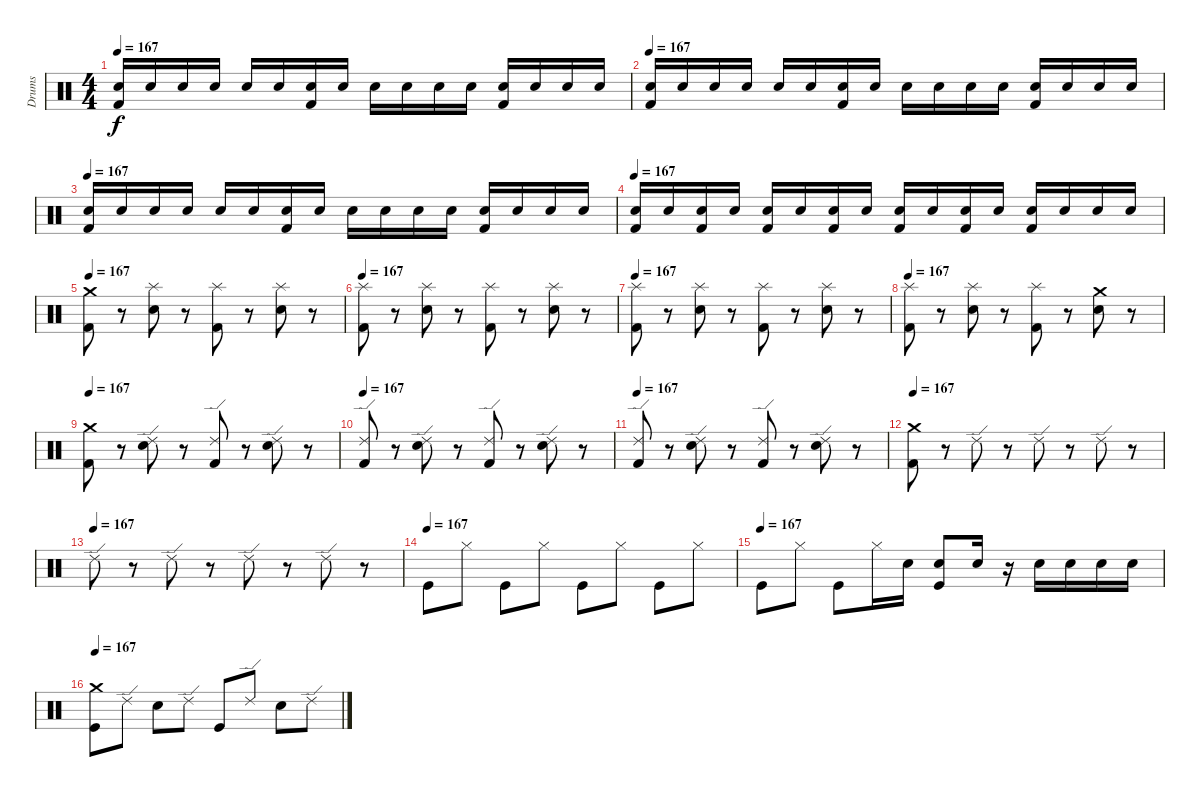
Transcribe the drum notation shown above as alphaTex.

\track ("Drums" "Drums") {instrument percussion}
\staff {score}
\articulation defaults
\ts (4 4)
\tempo 167
\clef neutral
\ks c
("Kick (hit) 2" "Electric Snare (hit)").16{dy f} "Electric Snare (hit)".16 "Electric Snare (hit)".16 "Electric Snare (hit)".16 "Electric Snare (hit)".16 "Electric Snare (hit)".16 ("Kick (hit) 2" "Electric Snare (hit)").16 "Electric Snare (hit)".16 "Electric Snare (hit)".16 "Electric Snare (hit)".16 "Electric Snare (hit)".16 "Electric Snare (hit)".16 ("Kick (hit) 2" "Electric Snare (hit)").16 "Electric Snare (hit)".16 "Electric Snare (hit)".16 "Electric Snare (hit)".16 |
\tempo 167
("Kick (hit) 2" "Electric Snare (hit)").16 "Electric Snare (hit)".16 "Electric Snare (hit)".16 "Electric Snare (hit)".16 "Electric Snare (hit)".16 "Electric Snare (hit)".16 ("Kick (hit) 2" "Electric Snare (hit)").16 "Electric Snare (hit)".16 "Electric Snare (hit)".16 "Electric Snare (hit)".16 "Electric Snare (hit)".16 "Electric Snare (hit)".16 ("Kick (hit) 2" "Electric Snare (hit)").16 "Electric Snare (hit)".16 "Electric Snare (hit)".16 "Electric Snare (hit)".16 |
\tempo 167
("Kick (hit) 2" "Electric Snare (hit)").16 "Electric Snare (hit)".16 "Electric Snare (hit)".16 "Electric Snare (hit)".16 "Electric Snare (hit)".16 "Electric Snare (hit)".16 ("Kick (hit) 2" "Electric Snare (hit)").16 "Electric Snare (hit)".16 "Electric Snare (hit)".16 "Electric Snare (hit)".16 "Electric Snare (hit)".16 "Electric Snare (hit)".16 ("Kick (hit) 2" "Electric Snare (hit)").16 "Electric Snare (hit)".16 "Electric Snare (hit)".16 "Electric Snare (hit)".16 |
\tempo 167
("Kick (hit) 2" "Electric Snare (hit)").16 "Electric Snare (hit)".16 ("Kick (hit) 2" "Electric Snare (hit)").16 "Electric Snare (hit)".16 ("Kick (hit) 2" "Electric Snare (hit)").16 "Electric Snare (hit)".16 ("Kick (hit) 2" "Electric Snare (hit)").16 "Electric Snare (hit)".16 ("Kick (hit) 2" "Electric Snare (hit)").16 "Electric Snare (hit)".16 ("Kick (hit) 2" "Electric Snare (hit)").16 "Electric Snare (hit)".16 ("Kick (hit) 2" "Electric Snare (hit)").16 "Electric Snare (hit)".16 "Electric Snare (hit)".16 "Electric Snare (hit)".16 |
\tempo 167
("Kick (hit) 2" "Crash medium (hit)").8 r.8 ("Splash (hit)" "Electric Snare (hit)").8 r.8 ("Splash (hit)" "Kick (hit) 2").8 r.8 ("Splash (hit)" "Electric Snare (hit)").8 r.8 |
\tempo 167
("Splash (hit)" "Kick (hit) 2").8 r.8 ("Splash (hit)" "Electric Snare (hit)").8 r.8 ("Splash (hit)" "Kick (hit) 2").8 r.8 ("Splash (hit)" "Electric Snare (hit)").8 r.8 |
\tempo 167
("Splash (hit)" "Kick (hit) 2").8 r.8 ("Splash (hit)" "Electric Snare (hit)").8 r.8 ("Splash (hit)" "Kick (hit) 2").8 r.8 ("Splash (hit)" "Electric Snare (hit)").8 r.8 |
\tempo 167
("Splash (hit)" "Kick (hit) 2").8 r.8 ("Splash (hit)" "Electric Snare (hit)").8 r.8 ("Splash (hit)" "Kick (hit) 2").8 r.8 ("Electric Snare (hit)" "Crash medium (hit)").8 r.8 |
\tempo 167
("Kick (hit) 2" "Crash medium (hit)").8 r.8 ("Electric Snare (hit)" "Ride (edge) 2").8 r.8 ("Ride (edge) 2" "Kick (hit) 2").8 r.8 ("Electric Snare (hit)" "Ride (edge) 2").8 r.8 |
\tempo 167
("Ride (edge) 2" "Kick (hit) 2").8 r.8 ("Electric Snare (hit)" "Ride (edge) 2").8 r.8 ("Ride (edge) 2" "Kick (hit) 2").8 r.8 ("Electric Snare (hit)" "Ride (edge) 2").8 r.8 |
\tempo 167
("Kick (hit) 2" "Ride (edge) 2").8 r.8 ("Electric Snare (hit)" "Ride (edge) 2").8 r.8 ("Kick (hit) 2" "Ride (edge) 2").8 r.8 ("Electric Snare (hit)" "Ride (edge) 2").8 r.8 |
\tempo 167
("Kick (hit) 2" "Crash medium (hit)").8 r.8 "Ride (edge) 2".8 r.8 "Ride (edge) 2".8 r.8 "Ride (edge) 2".8 r.8 |
\tempo (167)
"Ride (edge) 2".8 r.8 "Ride (edge) 2".8 r.8 "Ride (edge) 2".8 r.8 "Ride (edge) 2".8 r.8 |
\tempo (167)
"Kick (hit)".8 "Hi-Hat (closed)".8 "Kick (hit)".8 "Hi-Hat (closed)".8 "Kick (hit)".8 "Hi-Hat (closed)".8 "Kick (hit)".8 "Hi-Hat (closed)".8 |
\tempo (167)
"Kick (hit)".8 "Hi-Hat (closed)".8 "Kick (hit)".8 "Hi-Hat (closed)".16 "Electric Snare (hit)".16 ("Electric Snare (hit)" "Kick (hit)").8 "Electric Snare (hit)".16 r.16 "Electric Snare (hit)".16 "Electric Snare (hit)".16 "Electric Snare (hit)".16 "Electric Snare (hit)".16 |
\tempo 167
("Crash medium (hit)" "Kick (hit)").8 "Ride (edge) 2".8 "Electric Snare (hit)".8 "Ride (edge) 2".8 "Kick (hit)".8 "Ride (edge) 2".8 "Electric Snare (hit)".8 "Ride (edge) 2".8
